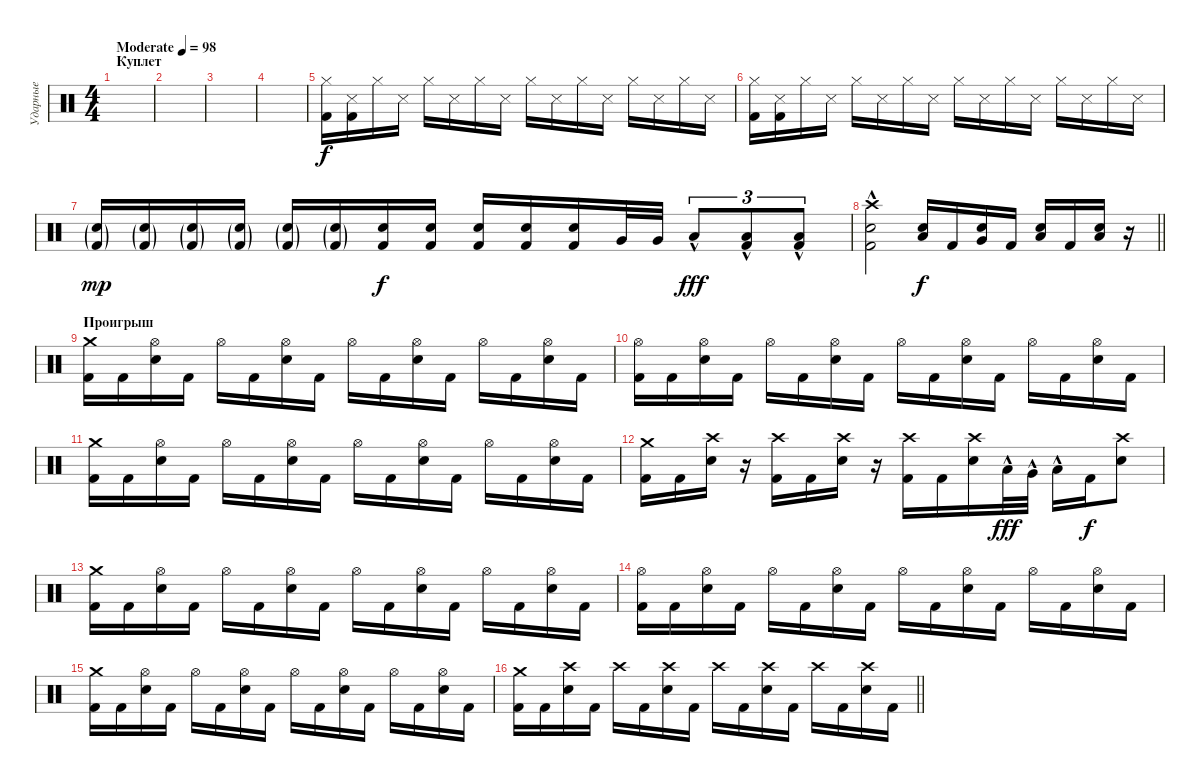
\track ("Ударные" "Ударные") {instrument percussion}
\staff {score}
\articulation defaults
\ts (4 4)
\section ("" "Куплет")
\tempo (98 "Moderate")
\clef neutral
\ks c
|
|
|
|
("Hi-Hat (closed)" "Kick (hit) 2").16 ("Snare (side stick) 3" "Kick (hit) 2").16 "Hi-Hat (closed)".16 "Snare (side stick) 3".16 "Hi-Hat (closed)".16 "Snare (side stick) 3".16 "Hi-Hat (closed)".16 "Snare (side stick) 3".16 "Hi-Hat (closed)".16 "Snare (side stick) 3".16 "Hi-Hat (closed)".16 "Snare (side stick) 3".16 "Hi-Hat (closed)".16 "Snare (side stick) 3".16 "Hi-Hat (closed)".16 "Snare (side stick) 3".16 |
("Hi-Hat (closed)" "Kick (hit) 2").16 ("Snare (side stick) 3" "Kick (hit) 2").16 "Hi-Hat (closed)".16 "Snare (side stick) 3".16 "Hi-Hat (closed)".16 "Snare (side stick) 3".16 "Hi-Hat (closed)".16 "Snare (side stick) 3".16 "Hi-Hat (closed)".16 "Snare (side stick) 3".16 "Hi-Hat (closed)".16 "Snare (side stick) 3".16 "Hi-Hat (closed)".16 "Snare (side stick) 3".16 "Hi-Hat (closed)".16 "Snare (side stick) 3".16 |
("Electric Snare (hit)"{g} "Kick (hit) 2"{g}).16{dy mp} ("Electric Snare (hit)"{g} "Kick (hit) 2"{g}).16 ("Electric Snare (hit)"{g} "Kick (hit) 2"{g}).16 ("Electric Snare (hit)"{g} "Kick (hit) 2"{g}).16 ("Electric Snare (hit)"{g} "Kick (hit) 2"{g}).16 ("Electric Snare (hit)"{g} "Kick (hit) 2"{g}).16 ("Electric Snare (hit)" "Kick (hit) 2").16{dy f} ("Electric Snare (hit)" "Kick (hit) 2").16 ("Electric Snare (hit)" "Kick (hit) 2").16 ("Electric Snare (hit)" "Kick (hit) 2").16 ("Electric Snare (hit)" "Kick (hit) 2").16 "Very Low Tom (hit)".32 "Very Low Tom (hit)".32 "Low Floor Tom (hit)"{hac}.8{tu (3 2) dy fff} ("Low Floor Tom (hit)"{hac} "Kick (hit) 2"{hac}).8{tu (3 2)} ("Low Floor Tom (hit)"{hac} "Kick (hit) 2"{hac}).8{tu (3 2)} |
\barLineRight lightlight
("Crash high (hit)"{hac} "Electric Snare (hit)"{hac} "Kick (hit) 2"{hac}).2 ("Low Tom (hit)" "Electric Snare (hit)").16{dy f} "Kick (hit) 2".16 ("Very Low Tom (hit)" "Electric Snare (hit)").16 "Kick (hit) 2".16 ("Low Floor Tom (hit)" "Electric Snare (hit)").16 "Kick (hit) 2".16 ("Low Floor Tom (hit)" "Electric Snare (hit)").16 r.16 |
\section ("" "Проигрыш")
("Crash medium (hit)" "Kick (hit) 2").16 "Kick (hit) 2".16 ("Hi-Hat (open)" "Electric Snare (hit)").16 "Kick (hit) 2".16 "Hi-Hat (open)".16 "Kick (hit) 2".16 ("Hi-Hat (open)" "Electric Snare (hit)").16 "Kick (hit) 2".16 "Hi-Hat (open)".16 "Kick (hit) 2".16 ("Hi-Hat (open)" "Electric Snare (hit)").16 "Kick (hit) 2".16 "Hi-Hat (open)".16 "Kick (hit) 2".16 ("Hi-Hat (open)" "Electric Snare (hit)").16 "Kick (hit) 2".16 |
("Hi-Hat (open)" "Kick (hit) 2").16 "Kick (hit) 2".16 ("Hi-Hat (open)" "Electric Snare (hit)").16 "Kick (hit) 2".16 "Hi-Hat (open)".16 "Kick (hit) 2".16 ("Hi-Hat (open)" "Electric Snare (hit)").16 "Kick (hit) 2".16 "Hi-Hat (open)".16 "Kick (hit) 2".16 ("Hi-Hat (open)" "Electric Snare (hit)").16 "Kick (hit) 2".16 "Hi-Hat (open)".16 "Kick (hit) 2".16 ("Hi-Hat (open)" "Electric Snare (hit)").16 "Kick (hit) 2".16 |
("Crash medium (hit)" "Kick (hit) 2").16 "Kick (hit) 2".16 ("Hi-Hat (open)" "Electric Snare (hit)").16 "Kick (hit) 2".16 "Hi-Hat (open)".16 "Kick (hit) 2".16 ("Hi-Hat (open)" "Electric Snare (hit)").16 "Kick (hit) 2".16 "Hi-Hat (open)".16 "Kick (hit) 2".16 ("Hi-Hat (open)" "Electric Snare (hit)").16 "Kick (hit) 2".16 "Hi-Hat (open)".16 "Kick (hit) 2".16 ("Hi-Hat (open)" "Electric Snare (hit)").16 "Kick (hit) 2".16 |
("Crash medium (hit)" "Kick (hit) 2").16 "Kick (hit) 2".16 ("Crash high (hit)" "Electric Snare (hit)").16 r.16 ("Crash high (hit)" "Kick (hit) 2").16 "Kick (hit) 2".16 ("Crash high (hit)" "Electric Snare (hit)").16 r.16 ("Crash high (hit)" "Kick (hit) 2").16 "Kick (hit) 2".16 ("Crash high (hit)" "Electric Snare (hit)").16 "Low Floor Tom (hit)"{hac}.32{dy fff} "Very Low Tom (hit)"{hac}.32 "Low Floor Tom (hit)"{hac}.16 "Kick (hit) 2".16{dy f} ("Crash high (hit)" "Electric Snare (hit)").8 |
("Crash medium (hit)" "Kick (hit) 2").16 "Kick (hit) 2".16 ("Hi-Hat (open)" "Electric Snare (hit)").16 "Kick (hit) 2".16 "Hi-Hat (open)".16 "Kick (hit) 2".16 ("Hi-Hat (open)" "Electric Snare (hit)").16 "Kick (hit) 2".16 "Hi-Hat (open)".16 "Kick (hit) 2".16 ("Hi-Hat (open)" "Electric Snare (hit)").16 "Kick (hit) 2".16 "Hi-Hat (open)".16 "Kick (hit) 2".16 ("Hi-Hat (open)" "Electric Snare (hit)").16 "Kick (hit) 2".16 |
("Hi-Hat (open)" "Kick (hit) 2").16 "Kick (hit) 2".16 ("Hi-Hat (open)" "Electric Snare (hit)").16 "Kick (hit) 2".16 "Hi-Hat (open)".16 "Kick (hit) 2".16 ("Hi-Hat (open)" "Electric Snare (hit)").16 "Kick (hit) 2".16 "Hi-Hat (open)".16 "Kick (hit) 2".16 ("Hi-Hat (open)" "Electric Snare (hit)").16 "Kick (hit) 2".16 "Hi-Hat (open)".16 "Kick (hit) 2".16 ("Hi-Hat (open)" "Electric Snare (hit)").16 "Kick (hit) 2".16 |
("Crash medium (hit)" "Kick (hit) 2").16 "Kick (hit) 2".16 ("Hi-Hat (open)" "Electric Snare (hit)").16 "Kick (hit) 2".16 "Hi-Hat (open)".16 "Kick (hit) 2".16 ("Hi-Hat (open)" "Electric Snare (hit)").16 "Kick (hit) 2".16 "Hi-Hat (open)".16 "Kick (hit) 2".16 ("Hi-Hat (open)" "Electric Snare (hit)").16 "Kick (hit) 2".16 "Hi-Hat (open)".16 "Kick (hit) 2".16 ("Hi-Hat (open)" "Electric Snare (hit)").16 "Kick (hit) 2".16 |
\barLineRight lightlight
("Crash medium (hit)" "Kick (hit) 2").16 "Kick (hit) 2".16 ("Crash high (hit)" "Electric Snare (hit)").16 "Kick (hit) 2".16 "Crash high (hit)".16 "Kick (hit) 2".16 ("Crash high (hit)" "Electric Snare (hit)").16 "Kick (hit) 2".16 "Crash high (hit)".16 "Kick (hit) 2".16 ("Crash high (hit)" "Electric Snare (hit)").16 "Kick (hit) 2".16 "Crash high (hit)".16 "Kick (hit) 2".16 ("Crash high (hit)" "Electric Snare (hit)").16 "Kick (hit) 2".16
